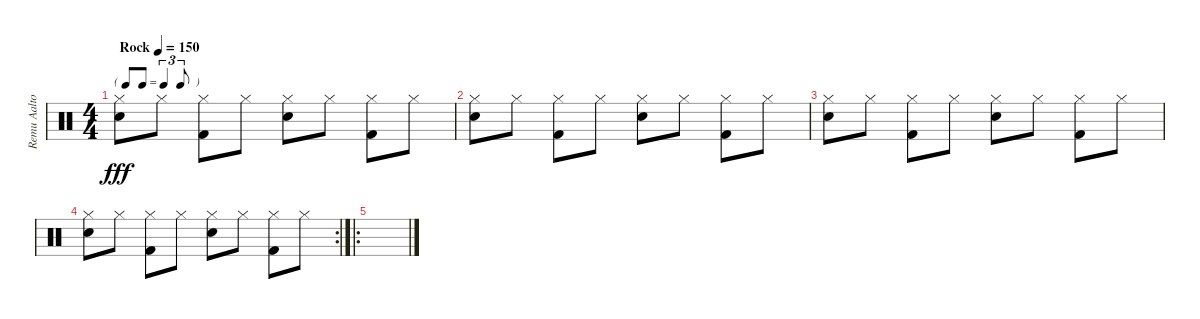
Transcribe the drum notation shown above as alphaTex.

\track ("Remu Aaltonen" "Remu Aalto") {instrument percussion}
\staff {score}
\articulation defaults
\ts (4 4)
\tf triplet8th
\tempo (150 "Rock")
\clef neutral
\ks c
("Hi-Hat (closed)" "Snare (hit) 2").8{dy fff} "Hi-Hat (closed)".8 ("Hi-Hat (closed)" "Kick (hit) 2").8 "Hi-Hat (closed)".8 ("Hi-Hat (closed)" "Snare (hit) 2").8 "Hi-Hat (closed)".8 ("Hi-Hat (closed)" "Kick (hit) 2").8 "Hi-Hat (closed)".8 |
("Hi-Hat (closed)" "Snare (hit) 2").8 "Hi-Hat (closed)".8 ("Hi-Hat (closed)" "Kick (hit) 2").8 "Hi-Hat (closed)".8 ("Hi-Hat (closed)" "Snare (hit) 2").8 "Hi-Hat (closed)".8 ("Hi-Hat (closed)" "Kick (hit) 2").8 "Hi-Hat (closed)".8 |
("Hi-Hat (closed)" "Snare (hit) 2").8 "Hi-Hat (closed)".8 ("Hi-Hat (closed)" "Kick (hit) 2").8 "Hi-Hat (closed)".8 ("Hi-Hat (closed)" "Snare (hit) 2").8 "Hi-Hat (closed)".8 ("Hi-Hat (closed)" "Kick (hit) 2").8 "Hi-Hat (closed)".8 |
\rc 2
("Hi-Hat (closed)" "Snare (hit) 2").8 "Hi-Hat (closed)".8 ("Hi-Hat (closed)" "Kick (hit) 2").8 "Hi-Hat (closed)".8 ("Hi-Hat (closed)" "Snare (hit) 2").8 "Hi-Hat (closed)".8 ("Hi-Hat (closed)" "Kick (hit) 2").8 "Hi-Hat (closed)".8 |
\ro
